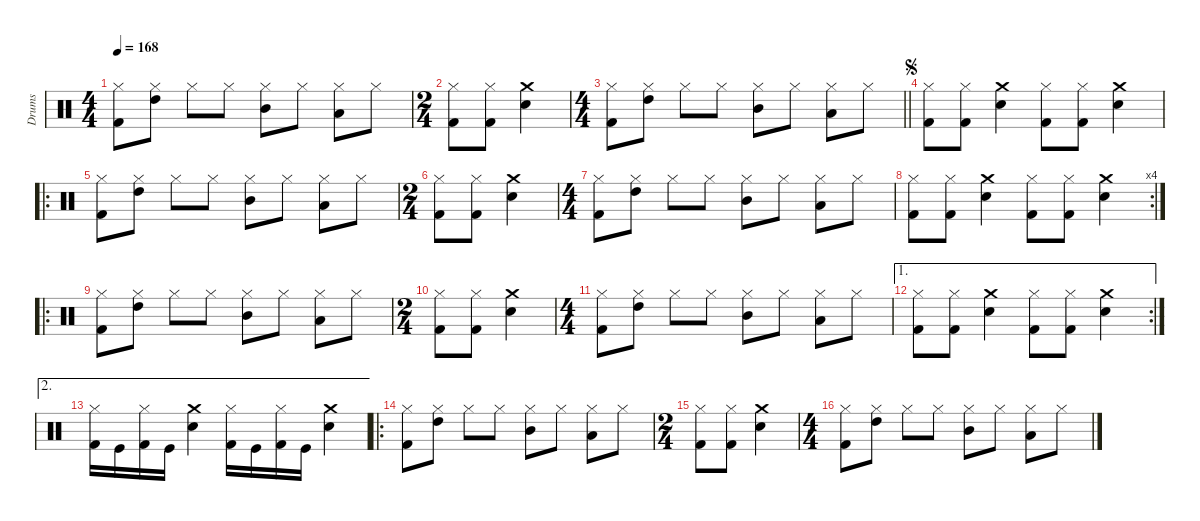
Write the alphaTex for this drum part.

\defaultSystemsLayout 4
\hideDynamics
\bracketExtendMode nobrackets
\firstSystemTrackNameMode fullname
\otherSystemsTrackNameOrientation horizontal
\track ("Drums" "drm.") {instrument percussion}
\staff {score}
\articulation defaults
\ts (4 4)
\tempo 168
\clef neutral
\ks c
("Hi-Hat (closed)" "Kick (hit) 2").8{dy fff beam Down} ("High Tom (hit)" "Hi-Hat (closed)").8{beam Down} "Hi-Hat (closed)".8{beam Down} "Hi-Hat (closed)".8{beam Down} ("Mid Tom (hit)" "Hi-Hat (closed)").8{beam Down} "Hi-Hat (closed)".8{beam Down} ("Low Tom (hit)" "Hi-Hat (closed)").8{beam Down} "Hi-Hat (closed)".8{beam Down} |
\ts (2 4)
\beaming (8 2 2)
("Hi-Hat (closed)" "Kick (hit) 2").8{beam Down} ("Hi-Hat (closed)" "Kick (hit) 2").8{beam Down} ("Crash medium (hit)" "Snare (hit) 2").4{beam Down} |
\ts (4 4)
\beaming (8 2 2 2 2)
\barLineRight lightlight
("Hi-Hat (closed)" "Kick (hit) 2").8{beam Down} ("High Tom (hit)" "Hi-Hat (closed)").8{beam Down} "Hi-Hat (closed)".8{beam Down} "Hi-Hat (closed)".8{beam Down} ("Mid Tom (hit)" "Hi-Hat (closed)").8{beam Down} "Hi-Hat (closed)".8{beam Down} ("Low Tom (hit)" "Hi-Hat (closed)").8{beam Down} "Hi-Hat (closed)".8{beam Down} |
\jump segno
("Hi-Hat (closed)" "Kick (hit) 2").8{beam Down} ("Hi-Hat (closed)" "Kick (hit) 2").8{beam Down} ("Snare (hit) 2" "Crash medium (hit)").4{beam Down} ("Kick (hit) 2" "Hi-Hat (closed)").8{beam Down} ("Kick (hit) 2" "Hi-Hat (closed)").8{beam Down} ("Crash medium (hit)" "Snare (hit) 2").4{beam Down} |
\ro
("Hi-Hat (closed)" "Kick (hit) 2").8{beam Down} ("High Tom (hit)" "Hi-Hat (closed)").8{beam Down} "Hi-Hat (closed)".8{beam Down} "Hi-Hat (closed)".8{beam Down} ("Mid Tom (hit)" "Hi-Hat (closed)").8{beam Down} "Hi-Hat (closed)".8{beam Down} ("Low Tom (hit)" "Hi-Hat (closed)").8{beam Down} "Hi-Hat (closed)".8{beam Down} |
\ts (2 4)
\beaming (8 2 2)
("Kick (hit) 2" "Hi-Hat (closed)").8{beam Down} ("Kick (hit) 2" "Hi-Hat (closed)").8{beam Down} ("Snare (hit) 2" "Crash medium (hit)").4{beam Down} |
\ts (4 4)
\beaming (8 2 2 2 2)
("Hi-Hat (closed)" "Kick (hit) 2").8{beam Down} ("High Tom (hit)" "Hi-Hat (closed)").8{beam Down} "Hi-Hat (closed)".8{beam Down} "Hi-Hat (closed)".8{beam Down} ("Mid Tom (hit)" "Hi-Hat (closed)").8{beam Down} "Hi-Hat (closed)".8{beam Down} ("Hi-Hat (closed)" "Low Tom (hit)").8{beam Down} "Hi-Hat (closed)".8{beam Down} |
\rc 4
("Hi-Hat (closed)" "Kick (hit) 2").8{beam Down} ("Hi-Hat (closed)" "Kick (hit) 2").8{beam Down} ("Snare (hit) 2" "Crash medium (hit)").4{beam Down} ("Kick (hit) 2" "Hi-Hat (closed)").8{beam Down} ("Kick (hit) 2" "Hi-Hat (closed)").8{beam Down} ("Crash medium (hit)" "Snare (hit) 2").4{beam Down} |
\ro
("Hi-Hat (closed)" "Kick (hit) 2").8{beam Down} ("High Tom (hit)" "Hi-Hat (closed)").8{beam Down} "Hi-Hat (closed)".8{beam Down} "Hi-Hat (closed)".8{beam Down} ("Mid Tom (hit)" "Hi-Hat (closed)").8{beam Down} "Hi-Hat (closed)".8{beam Down} ("Low Tom (hit)" "Hi-Hat (closed)").8{beam Down} "Hi-Hat (closed)".8{beam Down} |
\ts (2 4)
\beaming (8 2 2)
("Kick (hit) 2" "Hi-Hat (closed)").8{beam Down} ("Kick (hit) 2" "Hi-Hat (closed)").8{beam Down} ("Snare (hit) 2" "Crash medium (hit)").4{beam Down} |
\ts (4 4)
\beaming (8 2 2 2 2)
("Hi-Hat (closed)" "Kick (hit) 2").8{beam Down} ("High Tom (hit)" "Hi-Hat (closed)").8{beam Down} "Hi-Hat (closed)".8{beam Down} "Hi-Hat (closed)".8{beam Down} ("Mid Tom (hit)" "Hi-Hat (closed)").8{beam Down} "Hi-Hat (closed)".8{beam Down} ("Hi-Hat (closed)" "Low Tom (hit)").8{beam Down} "Hi-Hat (closed)".8{beam Down} |
\ae 1
\rc 2
("Hi-Hat (closed)" "Kick (hit) 2").8{beam Down} ("Hi-Hat (closed)" "Kick (hit) 2").8{beam Down} ("Snare (hit) 2" "Crash medium (hit)").4{beam Down} ("Kick (hit) 2" "Hi-Hat (closed)").8{beam Down} ("Kick (hit) 2" "Hi-Hat (closed)").8{beam Down} ("Crash medium (hit)" "Snare (hit) 2").4{beam Down} |
\ae 2
("Kick (hit) 2" "Hi-Hat (closed)").16{beam Down} "Kick (hit)".16{beam Down} ("Kick (hit) 2" "Hi-Hat (closed)").16{beam Down} "Kick (hit)".16{beam Down} ("Snare (hit) 2" "Crash medium (hit)").4{beam Down} ("Kick (hit) 2" "Hi-Hat (closed)").16{beam Down} "Kick (hit)".16{beam Down} ("Kick (hit) 2" "Hi-Hat (closed)").16{beam Down} "Kick (hit)".16{beam Down} ("Crash medium (hit)" "Snare (hit) 2").4{beam Down} |
\ro
("Hi-Hat (closed)" "Kick (hit) 2").8{beam Down} ("High Tom (hit)" "Hi-Hat (closed)").8{beam Down} "Hi-Hat (closed)".8{beam Down} "Hi-Hat (closed)".8{beam Down} ("Mid Tom (hit)" "Hi-Hat (closed)").8{beam Down} "Hi-Hat (closed)".8{beam Down} ("Low Tom (hit)" "Hi-Hat (closed)").8{beam Down} "Hi-Hat (closed)".8{beam Down} |
\ts (2 4)
\beaming (8 2 2)
("Kick (hit) 2" "Hi-Hat (closed)").8{beam Down} ("Kick (hit) 2" "Hi-Hat (closed)").8{beam Down} ("Snare (hit) 2" "Crash medium (hit)").4{beam Down} |
\ts (4 4)
\beaming (8 2 2 2 2)
("Hi-Hat (closed)" "Kick (hit) 2").8{beam Down} ("High Tom (hit)" "Hi-Hat (closed)").8{beam Down} "Hi-Hat (closed)".8{beam Down} "Hi-Hat (closed)".8{beam Down} ("Mid Tom (hit)" "Hi-Hat (closed)").8{beam Down} "Hi-Hat (closed)".8{beam Down} ("Hi-Hat (closed)" "Low Tom (hit)").8{beam Down} "Hi-Hat (closed)".8{beam Down}
